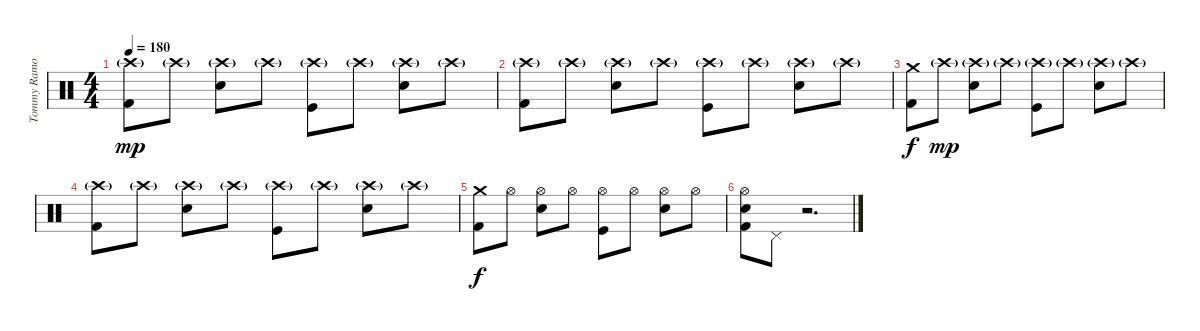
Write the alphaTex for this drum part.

\track ("Tommy Ramone" "Tommy Ramo") {instrument percussion}
\staff {score}
\articulation defaults
\ts (4 4)
\tempo 180
\clef neutral
\ks c
("Crash high (hit)"{g} "Kick (hit) 2").8{dy mp} "Crash high (hit)"{g}.8 ("Crash high (hit)"{g} "Snare (hit) 2").8 "Crash high (hit)"{g}.8 ("Crash high (hit)"{g} "Kick (hit)").8 "Crash high (hit)"{g}.8 ("Crash high (hit)"{g} "Snare (hit) 2").8 "Crash high (hit)"{g}.8 |
("Crash high (hit)"{g} "Kick (hit) 2").8 "Crash high (hit)"{g}.8 ("Crash high (hit)"{g} "Snare (hit) 2").8 "Crash high (hit)"{g}.8 ("Crash high (hit)"{g} "Kick (hit)").8 "Crash high (hit)"{g}.8 ("Crash high (hit)"{g} "Snare (hit) 2").8 "Crash high (hit)"{g}.8 |
("Crash medium (hit)" "Kick (hit) 2").8{dy f} "Crash high (hit)"{g}.8{dy mp} ("Crash high (hit)"{g} "Snare (hit) 2").8 "Crash high (hit)"{g}.8 ("Crash high (hit)"{g} "Kick (hit)").8 "Crash high (hit)"{g}.8 ("Crash high (hit)"{g} "Snare (hit) 2").8 "Crash high (hit)"{g}.8 |
("Crash high (hit)"{g} "Kick (hit) 2").8 "Crash high (hit)"{g}.8 ("Crash high (hit)"{g} "Snare (hit) 2").8 "Crash high (hit)"{g}.8 ("Crash high (hit)"{g} "Kick (hit)").8 "Crash high (hit)"{g}.8 ("Crash high (hit)"{g} "Snare (hit) 2").8 "Crash high (hit)"{g}.8 |
("Crash medium (hit)" "Kick (hit) 2").8{dy f} "Hi-Hat (open)".8 ("Hi-Hat (open)" "Snare (hit) 2").8 "Hi-Hat (open)".8 ("Hi-Hat (open)" "Kick (hit)").8 "Hi-Hat (open)".8 ("Hi-Hat (open)" "Snare (hit) 2").8 "Hi-Hat (open)".8 |
("Hi-Hat (open)" "Snare (hit) 2" "Kick (hit) 2").8 "Pedal Hi-Hat (hit)".8 r.2{d}
